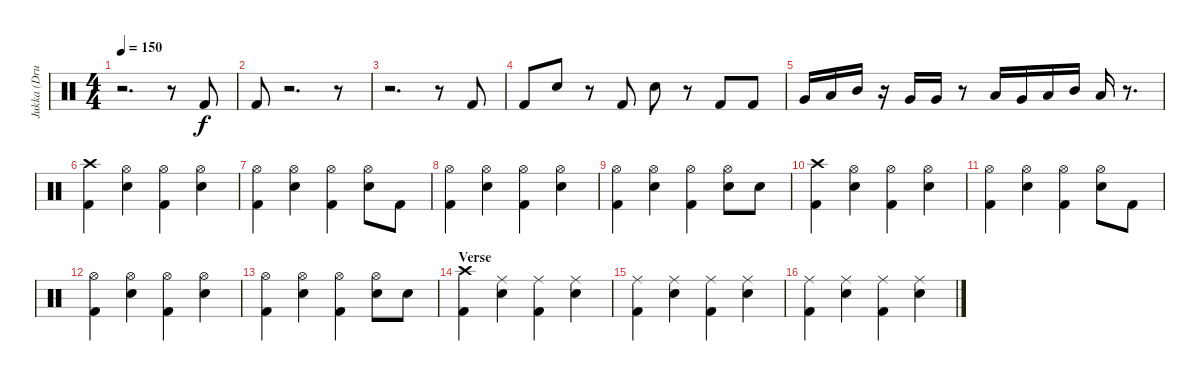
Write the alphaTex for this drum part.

\track ("Jukka (Drums)" "Jukka (Dru") {instrument percussion}
\staff {score}
\articulation defaults
\ts (4 4)
\tempo 150
\clef neutral
\ks c
r.2{d dy f} r.8 "Kick (hit) 2".8 |
"Kick (hit) 2".8 r.2{d} r.8 |
r.2{d} r.8 "Kick (hit) 2".8 |
"Kick (hit) 2".8 "Electric Snare (hit)".8 r.8 "Kick (hit) 2".8 "Electric Snare (hit)".8 r.8 "Kick (hit) 2".8 "Kick (hit) 2".8 |
"Very Low Tom (hit)".16 "Low Tom (hit)".16 "Mid Tom (hit)".16 r.16 "Very Low Tom (hit)".16 "Very Low Tom (hit)".16 r.8 "Low Tom (hit)".16 "Very Low Tom (hit)".16 "Low Tom (hit)".16 "Mid Tom (hit)".16 "Low Tom (hit)".16 r.8{d} |
("Kick (hit) 2" "Crash high (hit)").4 ("Hi-Hat (open)" "Electric Snare (hit)").4 ("Kick (hit) 2" "Hi-Hat (open)").4 ("Hi-Hat (open)" "Electric Snare (hit)").4 |
("Kick (hit) 2" "Hi-Hat (open)").4 ("Hi-Hat (open)" "Electric Snare (hit)").4 ("Kick (hit) 2" "Hi-Hat (open)").4 ("Hi-Hat (open)" "Electric Snare (hit)").8 "Kick (hit) 2".8 |
("Kick (hit) 2" "Hi-Hat (open)").4 ("Hi-Hat (open)" "Electric Snare (hit)").4 ("Kick (hit) 2" "Hi-Hat (open)").4 ("Hi-Hat (open)" "Electric Snare (hit)").4 |
("Kick (hit) 2" "Hi-Hat (open)").4 ("Hi-Hat (open)" "Electric Snare (hit)").4 ("Kick (hit) 2" "Hi-Hat (open)").4 ("Hi-Hat (open)" "Electric Snare (hit)").8 "Electric Snare (hit)".8 |
("Kick (hit) 2" "Crash high (hit)").4 ("Hi-Hat (open)" "Electric Snare (hit)").4 ("Kick (hit) 2" "Hi-Hat (open)").4 ("Hi-Hat (open)" "Electric Snare (hit)").4 |
("Kick (hit) 2" "Hi-Hat (open)").4 ("Hi-Hat (open)" "Electric Snare (hit)").4 ("Kick (hit) 2" "Hi-Hat (open)").4 ("Hi-Hat (open)" "Electric Snare (hit)").8 "Kick (hit) 2".8 |
("Kick (hit) 2" "Hi-Hat (open)").4 ("Hi-Hat (open)" "Electric Snare (hit)").4 ("Kick (hit) 2" "Hi-Hat (open)").4 ("Hi-Hat (open)" "Electric Snare (hit)").4 |
("Kick (hit) 2" "Hi-Hat (open)").4 ("Hi-Hat (open)" "Electric Snare (hit)").4 ("Kick (hit) 2" "Hi-Hat (open)").4 ("Hi-Hat (open)" "Electric Snare (hit)").8 "Electric Snare (hit)".8 |
\section ("" "Verse ")
("Kick (hit) 2" "Crash high (hit)").4 ("Ride (middle)" "Electric Snare (hit)").4 ("Kick (hit) 2" "Ride (middle)").4 ("Ride (middle)" "Electric Snare (hit)").4 |
("Kick (hit) 2" "Ride (middle)").4 ("Ride (middle)" "Electric Snare (hit)").4 ("Kick (hit) 2" "Ride (middle)").4 ("Ride (middle)" "Electric Snare (hit)").4 |
("Kick (hit) 2" "Ride (middle)").4 ("Ride (middle)" "Electric Snare (hit)").4 ("Kick (hit) 2" "Ride (middle)").4 ("Ride (middle)" "Electric Snare (hit)").4
